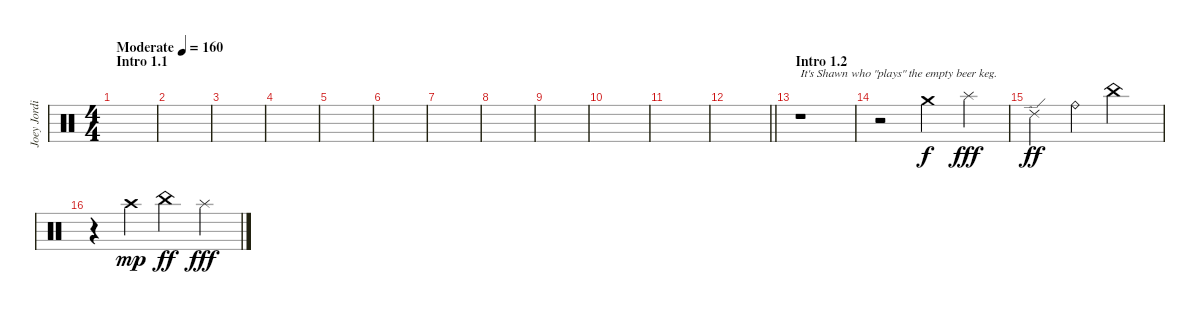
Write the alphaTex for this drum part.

\track ("Joey Jordison" "Joey Jordi") {instrument percussion}
\staff {score}
\articulation defaults
\ts (4 4)
\section ("" "Intro 1.1")
\tempo (160 "Moderate")
\clef neutral
\ks c
|
|
|
|
|
|
|
|
|
|
|
\barLineRight lightlight
|
\section ("" "Intro 1.2")
r.1{txt "It's Shawn who \"plays\" the empty beer keg."} |
r.2 "Crash medium (hit)".4 "Splash (hit)".4{dy fff} |
"Ride (edge) 2".4{dy ff} "Ride (bell)".4 "China (hit)".2 |
r.4 "Crash high (hit)".4{dy mp} "China (hit)".4{dy ff} "Splash (hit)".4{dy fff}
